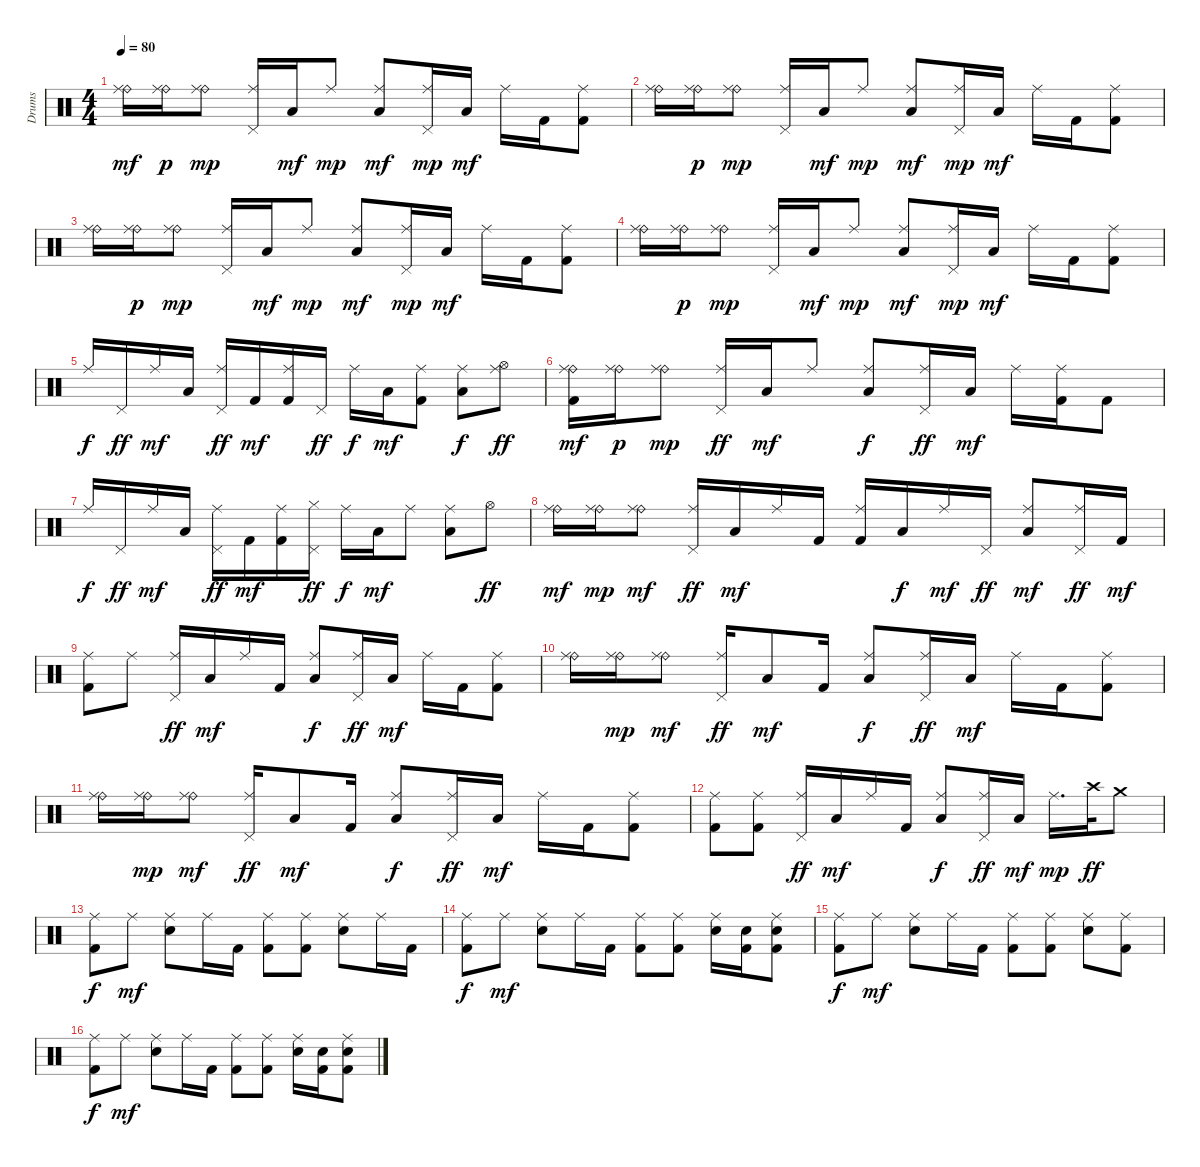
\track ("Drums" "Drums") {instrument percussion}
\staff {score}
\articulation defaults
\ts (4 4)
\tempo 80
\clef neutral
\ks c
("Ride (bell)" "Ride (middle)").16{dy mf} ("Ride (bell)" "Ride (middle)").16{dy p} ("Ride (bell)" "Ride (middle)").8{dy mp} ("Ride (middle)" "Pedal Hi-Hat (hit)").16 "Low Tom (hit)".16{dy mf} "Ride (middle)".8{dy mp} ("Ride (middle)" "Low Tom (hit)").8{dy mf} ("Ride (middle)" "Pedal Hi-Hat (hit)").16{dy mp} "Low Tom (hit)".16{dy mf} "Ride (middle)".16 "Kick (hit) 2".16 ("Ride (middle)" "Kick (hit) 2").8 |
("Ride (bell)" "Ride (middle)").16 ("Ride (bell)" "Ride (middle)").16{dy p} ("Ride (bell)" "Ride (middle)").8{dy mp} ("Ride (middle)" "Pedal Hi-Hat (hit)").16 "Low Tom (hit)".16{dy mf} "Ride (middle)".8{dy mp} ("Ride (middle)" "Low Tom (hit)").8{dy mf} ("Ride (middle)" "Pedal Hi-Hat (hit)").16{dy mp} "Low Tom (hit)".16{dy mf} "Ride (middle)".16 "Kick (hit) 2".16 ("Ride (middle)" "Kick (hit) 2").8 |
("Ride (bell)" "Ride (middle)").16 ("Ride (bell)" "Ride (middle)").16{dy p} ("Ride (bell)" "Ride (middle)").8{dy mp} ("Ride (middle)" "Pedal Hi-Hat (hit)").16 "Low Tom (hit)".16{dy mf} "Ride (middle)".8{dy mp} ("Ride (middle)" "Low Tom (hit)").8{dy mf} ("Ride (middle)" "Pedal Hi-Hat (hit)").16{dy mp} "Low Tom (hit)".16{dy mf} "Ride (middle)".16 "Kick (hit) 2".16 ("Ride (middle)" "Kick (hit) 2").8 |
("Ride (bell)" "Ride (middle)").16 ("Ride (bell)" "Ride (middle)").16{dy p} ("Ride (bell)" "Ride (middle)").8{dy mp} ("Ride (middle)" "Pedal Hi-Hat (hit)").16 "Low Tom (hit)".16{dy mf} "Ride (middle)".8{dy mp} ("Ride (middle)" "Low Tom (hit)").8{dy mf} ("Ride (middle)" "Pedal Hi-Hat (hit)").16{dy mp} "Low Tom (hit)".16{dy mf} "Ride (middle)".16 "Kick (hit) 2".16 ("Ride (middle)" "Kick (hit) 2").8 |
"Ride (middle)".16{dy f} "Pedal Hi-Hat (hit)".16{dy ff} "Ride (middle)".16{dy mf} "Low Tom (hit)".16 ("Ride (middle)" "Pedal Hi-Hat (hit)").16{dy ff} "Kick (hit) 2".16{dy mf} ("Ride (middle)" "Kick (hit) 2").16 "Pedal Hi-Hat (hit)".16{dy ff} "Ride (middle)".16{dy f} "Low Tom (hit)".16{dy mf} ("Ride (middle)" "Kick (hit) 2").8 ("Ride (middle)" "Low Tom (hit)").8{dy f} ("Ride (middle)" "Hi-Hat (open)").8{dy ff} |
("Ride (bell)" "Ride (middle)" "Kick (hit) 2").16{dy mf} ("Ride (bell)" "Ride (middle)").16{dy p} ("Ride (bell)" "Ride (middle)").8{dy mp} ("Ride (middle)" "Pedal Hi-Hat (hit)").16{dy ff} "Low Tom (hit)".16{dy mf} "Ride (middle)".8 ("Ride (middle)" "Low Tom (hit)").8{dy f} ("Ride (middle)" "Pedal Hi-Hat (hit)").16{dy ff} "Low Tom (hit)".16{dy mf} "Ride (middle)".16 ("Ride (middle)" "Kick (hit) 2").16 "Kick (hit) 2".8 |
"Ride (middle)".16{dy f} "Pedal Hi-Hat (hit)".16{dy ff} "Ride (middle)".16{dy mf} "Low Tom (hit)".16 ("Ride (middle)" "Pedal Hi-Hat (hit)").16{dy ff} "Kick (hit) 2".16{dy mf} ("Ride (middle)" "Kick (hit) 2").16 ("Pedal Hi-Hat (hit)" "Hi-Hat (closed)").16{dy ff} "Ride (middle)".16{dy f} "Low Tom (hit)".16{dy mf} "Ride (middle)".8 ("Ride (middle)" "Low Tom (hit)").8 "Hi-Hat (open)".8{dy ff} |
("Ride (bell)" "Ride (middle)").16{dy mf} ("Ride (bell)" "Ride (middle)").16{dy mp} ("Ride (bell)" "Ride (middle)").8{dy mf} ("Ride (middle)" "Pedal Hi-Hat (hit)").16{dy ff} "Low Tom (hit)".16{dy mf} "Ride (middle)".16 "Kick (hit) 2".16 ("Ride (middle)" "Kick (hit) 2").16 "Low Tom (hit)".16{dy f} "Ride (middle)".16{dy mf} "Pedal Hi-Hat (hit)".16{dy ff} ("Ride (middle)" "Low Tom (hit)").8{dy mf} ("Ride (middle)" "Pedal Hi-Hat (hit)").16{dy ff} "Kick (hit) 2".16{dy mf} |
("Ride (middle)" "Kick (hit) 2").8 "Ride (middle)".8 ("Ride (middle)" "Pedal Hi-Hat (hit)").16{dy ff} "Low Tom (hit)".16{dy mf} "Ride (middle)".16 "Kick (hit) 2".16 ("Ride (middle)" "Low Tom (hit)").8{dy f} ("Ride (middle)" "Pedal Hi-Hat (hit)").16{dy ff} "Low Tom (hit)".16{dy mf} "Ride (middle)".16 "Kick (hit) 2".16 ("Ride (middle)" "Kick (hit) 2").8 |
("Ride (bell)" "Ride (middle)").16 ("Ride (bell)" "Ride (middle)").16{dy mp} ("Ride (bell)" "Ride (middle)").8{dy mf} ("Ride (middle)" "Pedal Hi-Hat (hit)").16{dy ff} "Low Tom (hit)".8{dy mf} "Kick (hit) 2".16 ("Ride (middle)" "Low Tom (hit)").8{dy f} ("Ride (middle)" "Pedal Hi-Hat (hit)").16{dy ff} "Low Tom (hit)".16{dy mf} "Ride (middle)".16 "Kick (hit) 2".16 ("Ride (middle)" "Kick (hit) 2").8 |
("Ride (bell)" "Ride (middle)").16 ("Ride (bell)" "Ride (middle)").16{dy mp} ("Ride (bell)" "Ride (middle)").8{dy mf} ("Ride (middle)" "Pedal Hi-Hat (hit)").16{dy ff} "Low Tom (hit)".8{dy mf} "Kick (hit) 2".16 ("Ride (middle)" "Low Tom (hit)").8{dy f} ("Ride (middle)" "Pedal Hi-Hat (hit)").16{dy ff} "Low Tom (hit)".16{dy mf} "Ride (middle)".16 "Kick (hit) 2".16 ("Ride (middle)" "Kick (hit) 2").8 |
("Ride (middle)" "Kick (hit) 2").8 ("Ride (middle)" "Kick (hit) 2").8 ("Ride (middle)" "Pedal Hi-Hat (hit)").16{dy ff} "Low Tom (hit)".16{dy mf} "Ride (middle)".16 "Kick (hit) 2".16 ("Ride (middle)" "Low Tom (hit)").8{dy f} ("Ride (middle)" "Pedal Hi-Hat (hit)").16{dy ff} "Low Tom (hit)".16{dy mf} "Ride (middle)".16{d dy mp} "Crash high (hit)".32{dy ff} "Crash medium (hit)".8 |
("Ride (middle)" "Kick (hit) 2").8{dy f} "Ride (middle)".8{dy mf} ("Ride (middle)" "Electric Snare (hit)").8 "Ride (middle)".16 "Kick (hit) 2".16 ("Ride (middle)" "Kick (hit) 2").8 ("Ride (middle)" "Kick (hit) 2").8 ("Ride (middle)" "Electric Snare (hit)").8 "Ride (middle)".16 "Kick (hit) 2".16 |
("Ride (middle)" "Kick (hit) 2").8{dy f} "Ride (middle)".8{dy mf} ("Ride (middle)" "Electric Snare (hit)").8 "Ride (middle)".16 "Kick (hit) 2".16 ("Ride (middle)" "Kick (hit) 2").8 ("Ride (middle)" "Kick (hit) 2").8 ("Ride (middle)" "Electric Snare (hit)").16 ("Electric Snare (hit)" "Kick (hit) 2").16 ("Ride (middle)" "Electric Snare (hit)" "Kick (hit) 2").8 |
("Ride (middle)" "Kick (hit) 2").8{dy f} "Ride (middle)".8{dy mf} ("Ride (middle)" "Electric Snare (hit)").8 "Ride (middle)".16 "Kick (hit) 2".16 ("Ride (middle)" "Kick (hit) 2").8 ("Ride (middle)" "Kick (hit) 2").8 ("Ride (middle)" "Electric Snare (hit)").8 ("Ride (middle)" "Kick (hit) 2").8 |
("Ride (middle)" "Kick (hit) 2").8{dy f} "Ride (middle)".8{dy mf} ("Ride (middle)" "Electric Snare (hit)").8 "Ride (middle)".16 "Kick (hit) 2".16 ("Ride (middle)" "Kick (hit) 2").8 ("Ride (middle)" "Kick (hit) 2").8 ("Ride (middle)" "Electric Snare (hit)").16 ("Electric Snare (hit)" "Kick (hit) 2").16 ("Ride (middle)" "Electric Snare (hit)" "Kick (hit) 2").8
